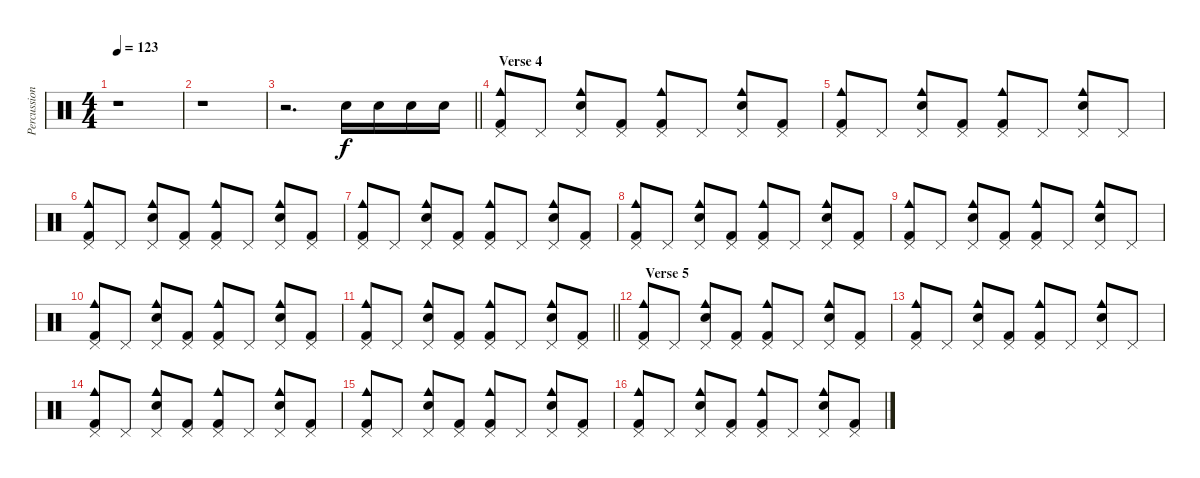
\track ("Percussion" "Percussion") {instrument percussion}
\staff {score}
\articulation defaults
\ts (4 4)
\tempo 123
\clef neutral
\ks c
r.1{dy f} |
r.1 |
\barLineRight lightlight
r.2{d} "Electric Snare (hit)".16 "Electric Snare (hit)".16 "Electric Snare (hit)".16 "Electric Snare (hit)".16 |
\section ("" " Verse 4")
("Pedal Hi-Hat (hit)" "Kick (hit) 2" "Cowbell medium (hit)").8 "Pedal Hi-Hat (hit)".8 ("Pedal Hi-Hat (hit)" "Electric Snare (hit)" "Cowbell medium (hit)").8 ("Pedal Hi-Hat (hit)" "Kick (hit) 2").8 ("Pedal Hi-Hat (hit)" "Kick (hit) 2" "Cowbell medium (hit)").8 "Pedal Hi-Hat (hit)".8 ("Pedal Hi-Hat (hit)" "Electric Snare (hit)" "Cowbell medium (hit)").8 ("Pedal Hi-Hat (hit)" "Kick (hit) 2").8 |
("Pedal Hi-Hat (hit)" "Kick (hit) 2" "Cowbell medium (hit)").8 "Pedal Hi-Hat (hit)".8 ("Pedal Hi-Hat (hit)" "Electric Snare (hit)" "Cowbell medium (hit)").8 ("Pedal Hi-Hat (hit)" "Kick (hit) 2").8 ("Pedal Hi-Hat (hit)" "Kick (hit) 2" "Cowbell medium (hit)").8 "Pedal Hi-Hat (hit)".8 ("Pedal Hi-Hat (hit)" "Electric Snare (hit)" "Cowbell medium (hit)").8 "Pedal Hi-Hat (hit)".8 |
("Pedal Hi-Hat (hit)" "Kick (hit) 2" "Cowbell medium (hit)").8 "Pedal Hi-Hat (hit)".8 ("Pedal Hi-Hat (hit)" "Electric Snare (hit)" "Cowbell medium (hit)").8 ("Pedal Hi-Hat (hit)" "Kick (hit) 2").8 ("Pedal Hi-Hat (hit)" "Kick (hit) 2" "Cowbell medium (hit)").8 "Pedal Hi-Hat (hit)".8 ("Pedal Hi-Hat (hit)" "Electric Snare (hit)" "Cowbell medium (hit)").8 ("Pedal Hi-Hat (hit)" "Kick (hit) 2").8 |
("Pedal Hi-Hat (hit)" "Kick (hit) 2" "Cowbell medium (hit)").8 "Pedal Hi-Hat (hit)".8 ("Pedal Hi-Hat (hit)" "Electric Snare (hit)" "Cowbell medium (hit)").8 ("Pedal Hi-Hat (hit)" "Kick (hit) 2").8 ("Pedal Hi-Hat (hit)" "Kick (hit) 2" "Cowbell medium (hit)").8 "Pedal Hi-Hat (hit)".8 ("Pedal Hi-Hat (hit)" "Electric Snare (hit)" "Cowbell medium (hit)").8 ("Pedal Hi-Hat (hit)" "Kick (hit) 2").8 |
("Pedal Hi-Hat (hit)" "Kick (hit) 2" "Cowbell medium (hit)").8 "Pedal Hi-Hat (hit)".8 ("Pedal Hi-Hat (hit)" "Electric Snare (hit)" "Cowbell medium (hit)").8 ("Pedal Hi-Hat (hit)" "Kick (hit) 2").8 ("Pedal Hi-Hat (hit)" "Kick (hit) 2" "Cowbell medium (hit)").8 "Pedal Hi-Hat (hit)".8 ("Pedal Hi-Hat (hit)" "Electric Snare (hit)" "Cowbell medium (hit)").8 ("Pedal Hi-Hat (hit)" "Kick (hit) 2").8 |
("Pedal Hi-Hat (hit)" "Kick (hit) 2" "Cowbell medium (hit)").8 "Pedal Hi-Hat (hit)".8 ("Pedal Hi-Hat (hit)" "Electric Snare (hit)" "Cowbell medium (hit)").8 ("Pedal Hi-Hat (hit)" "Kick (hit) 2").8 ("Pedal Hi-Hat (hit)" "Kick (hit) 2" "Cowbell medium (hit)").8 "Pedal Hi-Hat (hit)".8 ("Pedal Hi-Hat (hit)" "Electric Snare (hit)" "Cowbell medium (hit)").8 "Pedal Hi-Hat (hit)".8 |
("Pedal Hi-Hat (hit)" "Kick (hit) 2" "Cowbell medium (hit)").8 "Pedal Hi-Hat (hit)".8 ("Pedal Hi-Hat (hit)" "Electric Snare (hit)" "Cowbell medium (hit)").8 ("Pedal Hi-Hat (hit)" "Kick (hit) 2").8 ("Pedal Hi-Hat (hit)" "Kick (hit) 2" "Cowbell medium (hit)").8 "Pedal Hi-Hat (hit)".8 ("Pedal Hi-Hat (hit)" "Electric Snare (hit)" "Cowbell medium (hit)").8 ("Pedal Hi-Hat (hit)" "Kick (hit) 2").8 |
\barLineRight lightlight
("Pedal Hi-Hat (hit)" "Kick (hit) 2" "Cowbell medium (hit)").8 "Pedal Hi-Hat (hit)".8 ("Pedal Hi-Hat (hit)" "Electric Snare (hit)" "Cowbell medium (hit)").8 ("Pedal Hi-Hat (hit)" "Kick (hit) 2").8 ("Pedal Hi-Hat (hit)" "Kick (hit) 2" "Cowbell medium (hit)").8 "Pedal Hi-Hat (hit)".8 ("Pedal Hi-Hat (hit)" "Electric Snare (hit)" "Cowbell medium (hit)").8 ("Pedal Hi-Hat (hit)" "Kick (hit) 2").8 |
\section ("" "  Verse 5")
("Pedal Hi-Hat (hit)" "Kick (hit) 2" "Cowbell medium (hit)").8 "Pedal Hi-Hat (hit)".8 ("Pedal Hi-Hat (hit)" "Electric Snare (hit)" "Cowbell medium (hit)").8 ("Pedal Hi-Hat (hit)" "Kick (hit) 2").8 ("Pedal Hi-Hat (hit)" "Kick (hit) 2" "Cowbell medium (hit)").8 "Pedal Hi-Hat (hit)".8 ("Pedal Hi-Hat (hit)" "Electric Snare (hit)" "Cowbell medium (hit)").8 ("Pedal Hi-Hat (hit)" "Kick (hit) 2").8 |
("Pedal Hi-Hat (hit)" "Kick (hit) 2" "Cowbell medium (hit)").8 "Pedal Hi-Hat (hit)".8 ("Pedal Hi-Hat (hit)" "Electric Snare (hit)" "Cowbell medium (hit)").8 ("Pedal Hi-Hat (hit)" "Kick (hit) 2").8 ("Pedal Hi-Hat (hit)" "Kick (hit) 2" "Cowbell medium (hit)").8 "Pedal Hi-Hat (hit)".8 ("Pedal Hi-Hat (hit)" "Electric Snare (hit)" "Cowbell medium (hit)").8 "Pedal Hi-Hat (hit)".8 |
("Pedal Hi-Hat (hit)" "Kick (hit) 2" "Cowbell medium (hit)").8 "Pedal Hi-Hat (hit)".8 ("Pedal Hi-Hat (hit)" "Electric Snare (hit)" "Cowbell medium (hit)").8 ("Pedal Hi-Hat (hit)" "Kick (hit) 2").8 ("Pedal Hi-Hat (hit)" "Kick (hit) 2" "Cowbell medium (hit)").8 "Pedal Hi-Hat (hit)".8 ("Pedal Hi-Hat (hit)" "Electric Snare (hit)" "Cowbell medium (hit)").8 ("Pedal Hi-Hat (hit)" "Kick (hit) 2").8 |
("Pedal Hi-Hat (hit)" "Kick (hit) 2" "Cowbell medium (hit)").8 "Pedal Hi-Hat (hit)".8 ("Pedal Hi-Hat (hit)" "Electric Snare (hit)" "Cowbell medium (hit)").8 ("Pedal Hi-Hat (hit)" "Kick (hit) 2").8 ("Pedal Hi-Hat (hit)" "Kick (hit) 2" "Cowbell medium (hit)").8 "Pedal Hi-Hat (hit)".8 ("Pedal Hi-Hat (hit)" "Electric Snare (hit)" "Cowbell medium (hit)").8 ("Pedal Hi-Hat (hit)" "Kick (hit) 2").8 |
("Pedal Hi-Hat (hit)" "Kick (hit) 2" "Cowbell medium (hit)").8 "Pedal Hi-Hat (hit)".8 ("Pedal Hi-Hat (hit)" "Electric Snare (hit)" "Cowbell medium (hit)").8 ("Pedal Hi-Hat (hit)" "Kick (hit) 2").8 ("Pedal Hi-Hat (hit)" "Kick (hit) 2" "Cowbell medium (hit)").8 "Pedal Hi-Hat (hit)".8 ("Pedal Hi-Hat (hit)" "Electric Snare (hit)" "Cowbell medium (hit)").8 ("Pedal Hi-Hat (hit)" "Kick (hit) 2").8
